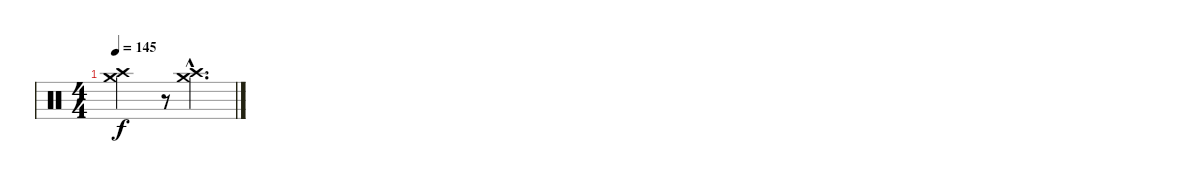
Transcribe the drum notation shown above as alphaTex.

\track "" {instrument percussion}
\staff {score}
\articulation defaults
\ts (4 4)
\tempo 145
\clef neutral
\ks c
("Crash medium (hit)" "Crash high (hit)").2{dy f} r.8 ("Crash medium (hit)"{hac} "Crash high (hit)"{hac}).4{d}
